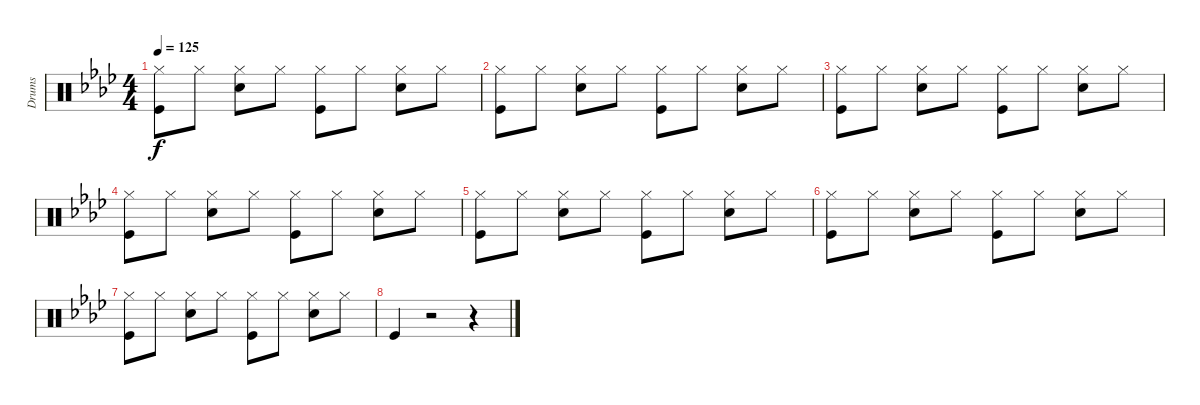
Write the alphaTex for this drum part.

\track ("Drums" "Drums") {instrument percussion}
\staff {score}
\articulation defaults
\ts (4 4)
\tempo 125
\clef neutral
\ks ab
("Kick (hit)" "Hi-Hat (closed)").8{dy f} "Hi-Hat (closed)".8 ("Electric Snare (hit)" "Hi-Hat (closed)").8 "Hi-Hat (closed)".8 ("Kick (hit)" "Hi-Hat (closed)").8 "Hi-Hat (closed)".8 ("Electric Snare (hit)" "Hi-Hat (closed)").8 "Hi-Hat (closed)".8 |
("Kick (hit)" "Hi-Hat (closed)").8 "Hi-Hat (closed)".8 ("Electric Snare (hit)" "Hi-Hat (closed)").8 "Hi-Hat (closed)".8 ("Kick (hit)" "Hi-Hat (closed)").8 "Hi-Hat (closed)".8 ("Electric Snare (hit)" "Hi-Hat (closed)").8 "Hi-Hat (closed)".8 |
("Kick (hit)" "Hi-Hat (closed)").8 "Hi-Hat (closed)".8 ("Electric Snare (hit)" "Hi-Hat (closed)").8 "Hi-Hat (closed)".8 ("Kick (hit)" "Hi-Hat (closed)").8 "Hi-Hat (closed)".8 ("Electric Snare (hit)" "Hi-Hat (closed)").8 "Hi-Hat (closed)".8 |
("Kick (hit)" "Hi-Hat (closed)").8 "Hi-Hat (closed)".8 ("Electric Snare (hit)" "Hi-Hat (closed)").8 "Hi-Hat (closed)".8 ("Kick (hit)" "Hi-Hat (closed)").8 "Hi-Hat (closed)".8 ("Electric Snare (hit)" "Hi-Hat (closed)").8 "Hi-Hat (closed)".8 |
("Kick (hit)" "Hi-Hat (closed)").8 "Hi-Hat (closed)".8 ("Electric Snare (hit)" "Hi-Hat (closed)").8 "Hi-Hat (closed)".8 ("Kick (hit)" "Hi-Hat (closed)").8 "Hi-Hat (closed)".8 ("Electric Snare (hit)" "Hi-Hat (closed)").8 "Hi-Hat (closed)".8 |
("Kick (hit)" "Hi-Hat (closed)").8 "Hi-Hat (closed)".8 ("Electric Snare (hit)" "Hi-Hat (closed)").8 "Hi-Hat (closed)".8 ("Kick (hit)" "Hi-Hat (closed)").8 "Hi-Hat (closed)".8 ("Electric Snare (hit)" "Hi-Hat (closed)").8 "Hi-Hat (closed)".8 |
("Kick (hit)" "Hi-Hat (closed)").8 "Hi-Hat (closed)".8 ("Electric Snare (hit)" "Hi-Hat (closed)").8 "Hi-Hat (closed)".8 ("Kick (hit)" "Hi-Hat (closed)").8 "Hi-Hat (closed)".8 ("Electric Snare (hit)" "Hi-Hat (closed)").8 "Hi-Hat (closed)".8 |
"Kick (hit)".4 r.2 r.4
